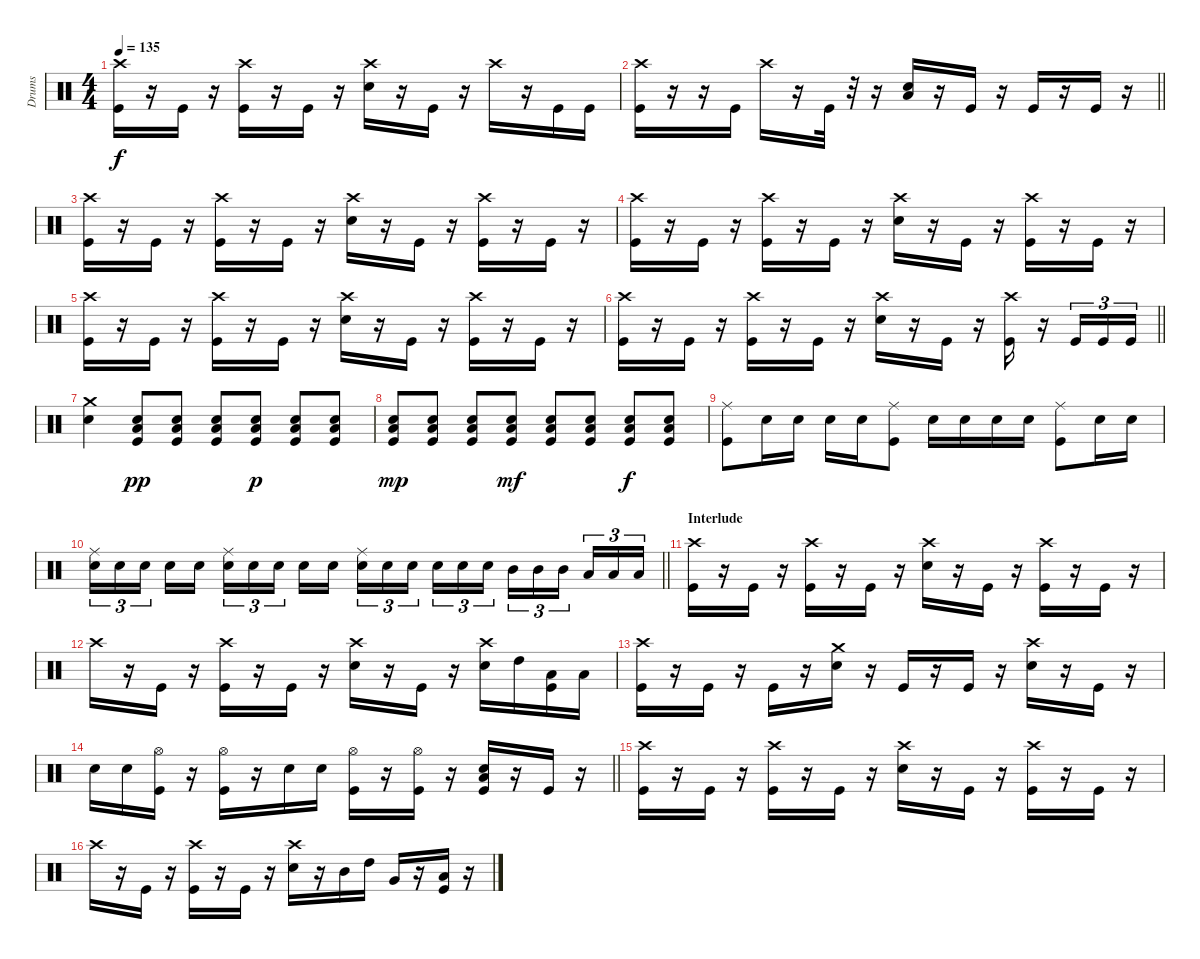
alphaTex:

\track ("Drums" "Drums") {instrument percussion}
\staff {score}
\articulation defaults
\ts (4 4)
\tempo 135
\clef neutral
\ks c
("Crash high (hit)" "Kick (hit)").16{dy f} r.16 "Kick (hit)".16 r.16 ("Crash high (hit)" "Kick (hit)").16 r.16 "Kick (hit)".16 r.16 ("Crash high (hit)" "Snare (hit) 2").16 r.16 "Kick (hit)".16 r.16 "Crash high (hit)".16 r.16 "Kick (hit)".16 "Kick (hit)".16 |
\barLineRight lightlight
("Crash high (hit)" "Kick (hit)").16 r.16 r.16 "Kick (hit)".16 "Crash high (hit)".16 r.16 "Kick (hit)".32 r.32 r.16 ("Low Floor Tom (hit)" "Snare (hit) 2").16 r.16 "Kick (hit)".16 r.16 "Kick (hit)".16 r.16 "Kick (hit)".16 r.16 |
("Crash high (hit)" "Kick (hit)").16 r.16 "Kick (hit)".16 r.16 ("Crash high (hit)" "Kick (hit)").16 r.16 "Kick (hit)".16 r.16 ("Crash high (hit)" "Snare (hit) 2").16 r.16 "Kick (hit)".16 r.16 ("Crash high (hit)" "Kick (hit)").16 r.16 "Kick (hit)".16 r.16 |
("Crash high (hit)" "Kick (hit)").16 r.16 "Kick (hit)".16 r.16 ("Crash high (hit)" "Kick (hit)").16 r.16 "Kick (hit)".16 r.16 ("Crash high (hit)" "Snare (hit) 2").16 r.16 "Kick (hit)".16 r.16 ("Crash high (hit)" "Kick (hit)").16 r.16 "Kick (hit)".16 r.16 |
("Crash high (hit)" "Kick (hit)").16 r.16 "Kick (hit)".16 r.16 ("Crash high (hit)" "Kick (hit)").16 r.16 "Kick (hit)".16 r.16 ("Crash high (hit)" "Snare (hit) 2").16 r.16 "Kick (hit)".16 r.16 ("Crash high (hit)" "Kick (hit)").16 r.16 "Kick (hit)".16 r.16 |
\barLineRight lightlight
("Crash high (hit)" "Kick (hit)").16 r.16 "Kick (hit)".16 r.16 ("Crash high (hit)" "Kick (hit)").16 r.16 "Kick (hit)".16 r.16 ("Crash high (hit)" "Snare (hit) 2").16 r.16 "Kick (hit)".16 r.16 ("Crash high (hit)" "Kick (hit)").16 r.16 "Kick (hit)".16{tu (3 2)} "Kick (hit)".16{tu (3 2)} "Kick (hit)".16{tu (3 2)} |
("Crash medium (hit)" "Snare (hit) 2").4 ("Low Floor Tom (hit)" "Snare (hit) 2" "Kick (hit)").8{dy pp} ("Low Floor Tom (hit)" "Snare (hit) 2" "Kick (hit)").8 ("Low Floor Tom (hit)" "Snare (hit) 2" "Kick (hit)").8 ("Low Floor Tom (hit)" "Snare (hit) 2" "Kick (hit)").8{dy p} ("Low Floor Tom (hit)" "Snare (hit) 2" "Kick (hit)").8 ("Low Floor Tom (hit)" "Snare (hit) 2" "Kick (hit)").8 |
("Low Floor Tom (hit)" "Snare (hit) 2" "Kick (hit)").8{dy mp} ("Low Floor Tom (hit)" "Snare (hit) 2" "Kick (hit)").8 ("Low Floor Tom (hit)" "Snare (hit) 2" "Kick (hit)").8 ("Low Floor Tom (hit)" "Snare (hit) 2" "Kick (hit)").8{dy mf} ("Low Floor Tom (hit)" "Snare (hit) 2" "Kick (hit)").8 ("Low Floor Tom (hit)" "Snare (hit) 2" "Kick (hit)").8 ("Low Floor Tom (hit)" "Snare (hit) 2" "Kick (hit)").8{dy f} ("Low Floor Tom (hit)" "Snare (hit) 2" "Kick (hit)").8 |
("Ride (middle)" "Kick (hit)").8 "Snare (hit) 2".16 "Snare (hit) 2".16 "Snare (hit) 2".16 "Snare (hit) 2".16 ("Ride (middle)" "Kick (hit)").8 "Snare (hit) 2".16 "Snare (hit) 2".16 "Snare (hit) 2".16 "Snare (hit) 2".16 ("Ride (middle)" "Kick (hit)").8 "Snare (hit) 2".16 "Snare (hit) 2".16 |
\barLineRight lightlight
("Ride (middle)" "Snare (hit) 2").16{tu (3 2)} "Snare (hit) 2".16{tu (3 2)} "Snare (hit) 2".16{tu (3 2)} "Snare (hit) 2".16 "Snare (hit) 2".16 ("Ride (middle)" "Snare (hit) 2").16{tu (3 2)} "Snare (hit) 2".16{tu (3 2)} "Snare (hit) 2".16{tu (3 2)} "Snare (hit) 2".16 "Snare (hit) 2".16 ("Ride (middle)" "Snare (hit) 2").16{tu (3 2)} "Snare (hit) 2".16{tu (3 2)} "Snare (hit) 2".16{tu (3 2)} "Snare (hit) 2".16{tu (3 2)} "Snare (hit) 2".16{tu (3 2)} "Snare (hit) 2".16{tu (3 2)} "Mid Tom (hit)".16{tu (3 2)} "Mid Tom (hit)".16{tu (3 2)} "Mid Tom (hit)".16{tu (3 2)} "Low Floor Tom (hit)".16{tu (3 2)} "Low Floor Tom (hit)".16{tu (3 2)} "Low Floor Tom (hit)".16{tu (3 2)} |
\section ("" "Interlude")
("Crash high (hit)" "Kick (hit)").16 r.16 "Kick (hit)".16 r.16 ("Crash high (hit)" "Kick (hit)").16 r.16 "Kick (hit)".16 r.16 ("Crash high (hit)" "Snare (hit) 2").16 r.16 "Kick (hit)".16 r.16 ("Crash high (hit)" "Kick (hit)").16 r.16 "Kick (hit)".16 r.16 |
"Crash high (hit)".16 r.16 "Kick (hit)".16 r.16 ("Crash high (hit)" "Kick (hit)").16 r.16 "Kick (hit)".16 r.16 ("Crash high (hit)" "Snare (hit) 2").16 r.16 "Kick (hit)".16 r.16 ("Crash high (hit)" "Snare (hit) 2").16 "High Tom (hit)".16 ("Low Floor Tom (hit)" "Kick (hit)").16 "Low Floor Tom (hit)".16 |
("Crash high (hit)" "Kick (hit)").16 r.16 "Kick (hit)".16 r.16 "Kick (hit)".16 r.16 ("Crash medium (hit)" "Snare (hit) 2").16 r.16 "Kick (hit)".16 r.16 "Kick (hit)".16 r.16 ("Crash high (hit)" "Snare (hit) 2").16 r.16 "Kick (hit)".16 r.16 |
\barLineRight lightlight "Snare (hit) 2".16 "Snare (hit) 2".16
("Hi-Hat (open)" "Kick (hit)").16 r.16 ("Hi-Hat (open)" "Kick (hit)").16 r.16 "Snare (hit) 2".16 "Snare (hit) 2".16 ("Hi-Hat (open)" "Kick (hit)").16 r.16 ("Hi-Hat (open)" "Kick (hit)").16 r.16 ("Low Floor Tom (hit)" "Snare (hit) 2" "Kick (hit)").16 r.16 "Kick (hit)".16 r.16 |
("Crash high (hit)" "Kick (hit)").16 r.16 "Kick (hit)".16 r.16 ("Crash high (hit)" "Kick (hit)").16 r.16 "Kick (hit)".16 r.16 ("Crash high (hit)" "Snare (hit) 2").16 r.16 "Kick (hit)".16 r.16 ("Crash high (hit)" "Kick (hit)").16 r.16 "Kick (hit)".16 r.16 |
"Crash high (hit)".16 r.16 "Kick (hit)".16 r.16 ("Crash high (hit)" "Kick (hit)").16 r.16 "Kick (hit)".16 r.16 ("Crash high (hit)" "Snare (hit) 2").16 r.16 "Mid Tom (hit)".16 "High Tom (hit)".16 "Very Low Tom (hit)".16 r.16 ("Low Floor Tom (hit)" "Kick (hit)").16 r.16
